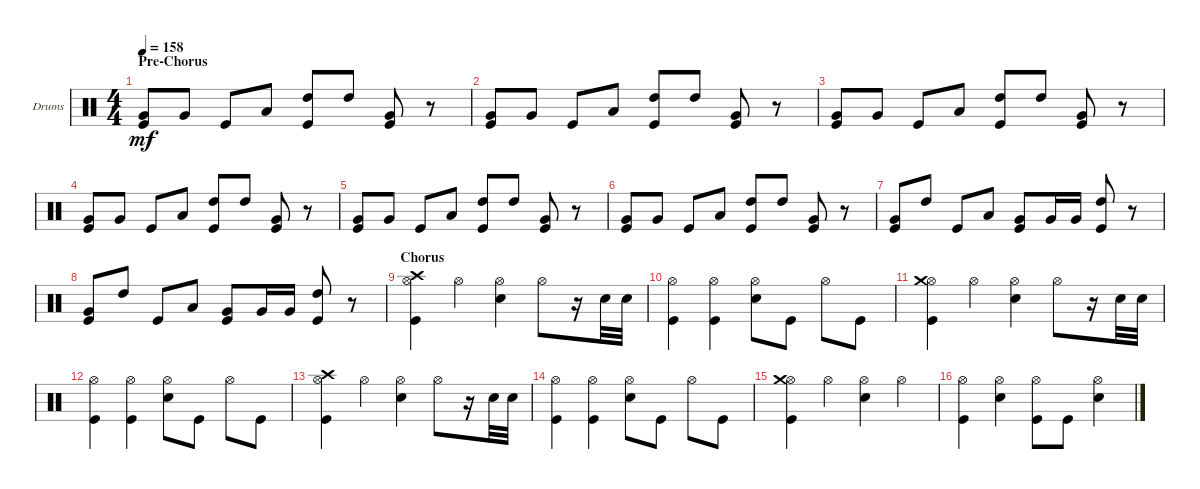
\defaultSystemsLayout 4
\bracketExtendMode groupsimilarinstruments
\firstSystemTrackNameOrientation horizontal
\otherSystemsTrackNameOrientation horizontal
\track ("Drumkit" "Drums") {instrument percussion}
\staff {score}
\articulation defaults
\ts (4 4)
\section ("" "Pre-Chorus")
\tempo 158
\clef neutral
\ks c
("Very Low Tom (hit)" "Kick (hit)").8{dy mf} "Very Low Tom (hit)".8 "Kick (hit)".8 "Low Tom (hit)".8 ("High Tom (hit)" "Kick (hit)").8 "High Tom (hit)".8 ("Very Low Tom (hit)" "Kick (hit)").8 r.8 |
("Very Low Tom (hit)" "Kick (hit)").8 "Very Low Tom (hit)".8 "Kick (hit)".8 "Low Tom (hit)".8 ("High Tom (hit)" "Kick (hit)").8 "High Tom (hit)".8 ("Very Low Tom (hit)" "Kick (hit)").8 r.8 |
("Very Low Tom (hit)" "Kick (hit)").8 "Very Low Tom (hit)".8 "Kick (hit)".8 "Low Tom (hit)".8 ("High Tom (hit)" "Kick (hit)").8 "High Tom (hit)".8 ("Very Low Tom (hit)" "Kick (hit)").8 r.8 |
("Very Low Tom (hit)" "Kick (hit)").8 "Very Low Tom (hit)".8 "Kick (hit)".8 "Low Tom (hit)".8 ("High Tom (hit)" "Kick (hit)").8 "High Tom (hit)".8 ("Very Low Tom (hit)" "Kick (hit)").8 r.8 |
("Very Low Tom (hit)" "Kick (hit)").8 "Very Low Tom (hit)".8 "Kick (hit)".8 "Low Tom (hit)".8 ("High Tom (hit)" "Kick (hit)").8 "High Tom (hit)".8 ("Very Low Tom (hit)" "Kick (hit)").8 r.8 |
("Very Low Tom (hit)" "Kick (hit)").8 "Very Low Tom (hit)".8 "Kick (hit)".8 "Low Tom (hit)".8 ("High Tom (hit)" "Kick (hit)").8 "High Tom (hit)".8 ("Very Low Tom (hit)" "Kick (hit)").8 r.8 |
("Kick (hit)" "Very Low Tom (hit)").8 "High Tom (hit)".8 "Kick (hit)".8 "Low Tom (hit)".8 ("Very Low Tom (hit)" "Kick (hit)").8 "Very Low Tom (hit)".16 "Very Low Tom (hit)".16 ("High Tom (hit)" "Kick (hit)").8 r.8 |
("Kick (hit)" "Very Low Tom (hit)").8 "High Tom (hit)".8 "Kick (hit)".8 "Low Tom (hit)".8 ("Very Low Tom (hit)" "Kick (hit)").8 "Very Low Tom (hit)".16 "Very Low Tom (hit)".16 ("High Tom (hit)" "Kick (hit)").8 r.8 |
\section ("" "Chorus")
("Crash high (hit)" "Hi-Hat (open)" "Kick (hit)").4 "Hi-Hat (open)".4 ("Hi-Hat (open)" "Snare (hit) 2").4 "Hi-Hat (open)".8 r.16 "Snare (hit) 2".32 "Snare (hit) 2".32 |
("Hi-Hat (open)" "Kick (hit)").4 ("Hi-Hat (open)" "Kick (hit)").4 ("Hi-Hat (open)" "Snare (hit) 2").8 "Kick (hit)".8 "Hi-Hat (open)".8 "Kick (hit)".8 |
("Hi-Hat (open)" "Kick (hit)" "Crash medium (hit)").4 "Hi-Hat (open)".4 ("Hi-Hat (open)" "Snare (hit) 2").4 "Hi-Hat (open)".8 r.16 "Snare (hit) 2".32 "Snare (hit) 2".32 |
("Hi-Hat (open)" "Kick (hit)").4 ("Hi-Hat (open)" "Kick (hit)").4 ("Hi-Hat (open)" "Snare (hit) 2").8 "Kick (hit)".8 "Hi-Hat (open)".8 "Kick (hit)".8 |
("Crash high (hit)" "Hi-Hat (open)" "Kick (hit)").4 "Hi-Hat (open)".4 ("Hi-Hat (open)" "Snare (hit) 2").4 "Hi-Hat (open)".8 r.16 "Snare (hit) 2".32 "Snare (hit) 2".32 |
("Hi-Hat (open)" "Kick (hit)").4 ("Hi-Hat (open)" "Kick (hit)").4 ("Hi-Hat (open)" "Snare (hit) 2").8 "Kick (hit)".8 "Hi-Hat (open)".8 "Kick (hit)".8 |
("Hi-Hat (open)" "Kick (hit)" "Crash medium (hit)").4 "Hi-Hat (open)".4 ("Hi-Hat (open)" "Snare (hit) 2").4 "Hi-Hat (open)".4 |
("Hi-Hat (open)" "Kick (hit)").4 ("Hi-Hat (open)" "Snare (hit) 2").4 ("Hi-Hat (open)" "Kick (hit)").8 "Kick (hit)".8 ("Hi-Hat (open)" "Snare (hit) 2").4
